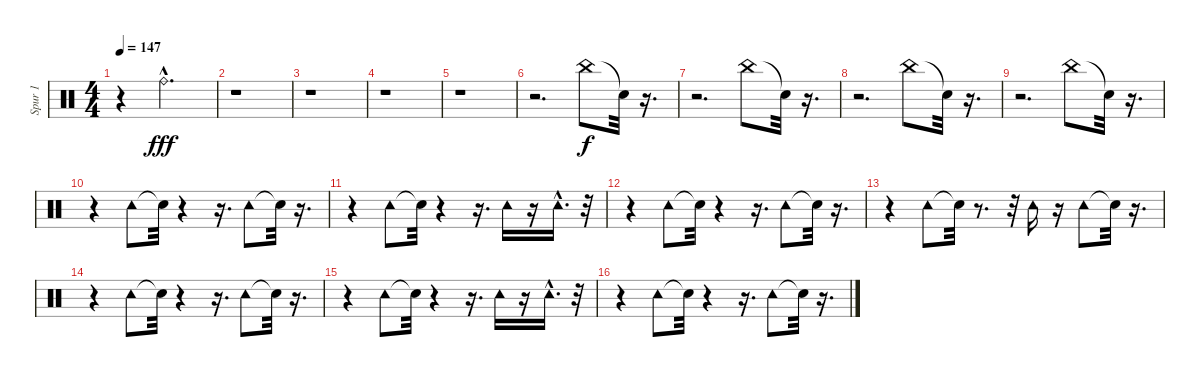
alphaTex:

\track ("Spur 1" "Spur 1") {instrument percussion}
\staff {score}
\articulation defaults
\ts (4 4)
\tempo 147
\clef neutral
\ks c
r.4{dy fff} "Ride (bell)"{hac}.2{d} |
r.1 |
r.1 |
r.1 |
r.1 |
r.2{d} "China (hit)".8{dy f volume 12} "Snare (hit)"{t}.32 r.16{d} |
r.2{d} "China (hit)".8 "Snare (hit)"{t}.32 r.16{d} |
r.2{d} "China (hit)".8 "Snare (hit)"{t}.32 r.16{d} |
r.2{d} "China (hit)".8 "Snare (hit)"{t}.32 r.16{d} |
r.4 "Tambourine (hit)".8 "Snare (hit)"{t}.32 r.4 r.16{d} "Tambourine (hit)".8 "Snare (hit)"{t}.32 r.16{d} |
r.4 "Tambourine (hit)".8 "Snare (hit)"{t}.32 r.4 r.16{d} "Tambourine (hit)".16 r.16 "Tambourine (hit)"{hac}.16{d} r.32 |
r.4 "Tambourine (hit)".8 "Snare (hit)"{t}.32 r.4 r.16{d} "Tambourine (hit)".8 "Snare (hit)"{t}.32 r.16{d} |
r.4 "Tambourine (hit)".8 "Snare (hit)"{t}.32 r.8{d} r.32 "Tambourine (hit)".16 r.16 "Tambourine (hit)".8 "Snare (hit)"{t}.32 r.16{d} |
r.4 "Tambourine (hit)".8 "Snare (hit)"{t}.32 r.4 r.16{d} "Tambourine (hit)".8 "Snare (hit)"{t}.32 r.16{d} |
r.4 "Tambourine (hit)".8 "Snare (hit)"{t}.32 r.4 r.16{d} "Tambourine (hit)".16 r.16 "Tambourine (hit)"{hac}.16{d} r.32 |
r.4 "Tambourine (hit)".8 "Snare (hit)"{t}.32 r.4 r.16{d} "Tambourine (hit)".8 "Snare (hit)"{t}.32 r.16{d}
